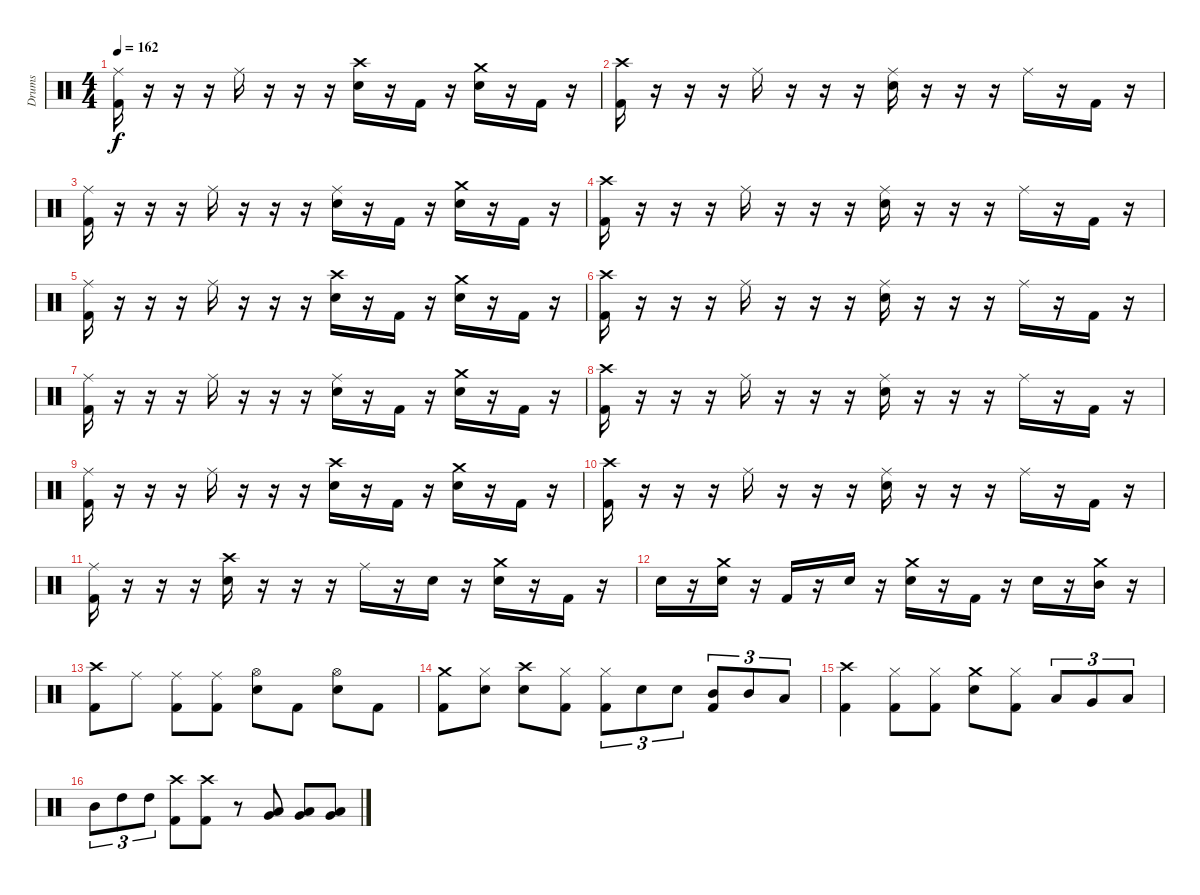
\track ("Drums" "Drums") {instrument percussion}
\staff {score}
\articulation defaults
\ts (4 4)
\tempo 162
\clef neutral
\ks c
("Ride (middle)" "Kick (hit) 2").16{dy f} r.16 r.16 r.16 "Ride (middle)".16 r.16 r.16 r.16 ("Crash high (hit)" "Snare (hit) 2").16 r.16 "Kick (hit) 2".16 r.16 ("Crash medium (hit)" "Snare (hit) 2").16 r.16 "Kick (hit) 2".16 r.16 |
("Crash high (hit)" "Kick (hit) 2").16 r.16 r.16 r.16 "Ride (middle)".16 r.16 r.16 r.16 ("Ride (middle)" "Snare (hit) 2").16 r.16 r.16 r.16 "Ride (middle)".16 r.16 "Kick (hit) 2".16 r.16 |
("Ride (middle)" "Kick (hit) 2").16 r.16 r.16 r.16 "Ride (middle)".16 r.16 r.16 r.16 ("Ride (middle)" "Snare (hit) 2").16 r.16 "Kick (hit) 2".16 r.16 ("Crash medium (hit)" "Snare (hit) 2").16 r.16 "Kick (hit) 2".16 r.16 |
("Crash high (hit)" "Kick (hit) 2").16 r.16 r.16 r.16 "Ride (middle)".16 r.16 r.16 r.16 ("Ride (middle)" "Snare (hit) 2").16 r.16 r.16 r.16 "Ride (middle)".16 r.16 "Kick (hit) 2".16 r.16 |
("Ride (middle)" "Kick (hit) 2").16 r.16 r.16 r.16 "Ride (middle)".16 r.16 r.16 r.16 ("Crash high (hit)" "Snare (hit) 2").16 r.16 "Kick (hit) 2".16 r.16 ("Crash medium (hit)" "Snare (hit) 2").16 r.16 "Kick (hit) 2".16 r.16 |
("Crash high (hit)" "Kick (hit) 2").16 r.16 r.16 r.16 "Ride (middle)".16 r.16 r.16 r.16 ("Ride (middle)" "Snare (hit) 2").16 r.16 r.16 r.16 "Ride (middle)".16 r.16 "Kick (hit) 2".16 r.16 |
("Ride (middle)" "Kick (hit) 2").16 r.16 r.16 r.16 "Ride (middle)".16 r.16 r.16 r.16 ("Ride (middle)" "Snare (hit) 2").16 r.16 "Kick (hit) 2".16 r.16 ("Crash medium (hit)" "Snare (hit) 2").16 r.16 "Kick (hit) 2".16 r.16 |
("Crash high (hit)" "Kick (hit) 2").16 r.16 r.16 r.16 "Ride (middle)".16 r.16 r.16 r.16 ("Ride (middle)" "Snare (hit) 2").16 r.16 r.16 r.16 "Ride (middle)".16 r.16 "Kick (hit) 2".16 r.16 |
("Ride (middle)" "Kick (hit) 2").16 r.16 r.16 r.16 "Ride (middle)".16 r.16 r.16 r.16 ("Crash high (hit)" "Snare (hit) 2").16 r.16 "Kick (hit) 2".16 r.16 ("Crash medium (hit)" "Snare (hit) 2").16 r.16 "Kick (hit) 2".16 r.16 |
("Crash high (hit)" "Kick (hit) 2").16 r.16 r.16 r.16 "Ride (middle)".16 r.16 r.16 r.16 ("Ride (middle)" "Snare (hit) 2").16 r.16 r.16 r.16 "Ride (middle)".16 r.16 "Kick (hit) 2".16 r.16 |
("Ride (middle)" "Kick (hit) 2").16 r.16 r.16 r.16 ("Crash high (hit)" "Snare (hit) 2").16 r.16 r.16 r.16 "Ride (middle)".16 r.16 "Snare (hit) 2".16 r.16 ("Crash medium (hit)" "Snare (hit) 2").16 r.16 "Kick (hit) 2".16 r.16 |
"Snare (hit) 2".16 r.16 ("Crash medium (hit)" "Snare (hit) 2").16 r.16 "Kick (hit) 2".16 r.16 "Snare (hit) 2".16 r.16 ("Crash medium (hit)" "Snare (hit) 2").16 r.16 "Kick (hit) 2".16 r.16 "Snare (hit) 2".16 r.16 ("Crash medium (hit)" "Mid Tom (hit)").16 r.16 |
("Crash high (hit)" "Kick (hit) 2").8 "Ride (middle)".8 ("Ride (middle)" "Kick (hit) 2").8 ("Ride (middle)" "Kick (hit) 2").8 ("Hi-Hat (open)" "Snare (hit) 2").8 "Kick (hit) 2".8 ("Hi-Hat (open)" "Snare (hit) 2").8 "Kick (hit) 2".8 |
("Crash medium (hit)" "Kick (hit) 2").8 ("Hi-Hat (closed)" "Snare (hit) 2").8 ("Crash high (hit)" "Snare (hit) 2").8 ("Hi-Hat (closed)" "Kick (hit) 2").8 ("Hi-Hat (closed)" "Kick (hit) 2").8{tu (3 2)} "Snare (hit) 2".8{tu (3 2)} "Snare (hit) 2".8{tu (3 2)} ("Mid Tom (hit)" "Kick (hit) 2").8{tu (3 2)} "Mid Tom (hit)".8{tu (3 2)} "Low Tom (hit)".8{tu (3 2)} |
("Crash high (hit)" "Kick (hit) 2").4 ("Hi-Hat (closed)" "Kick (hit) 2").8 ("Hi-Hat (closed)" "Kick (hit) 2").8 ("Crash medium (hit)" "Snare (hit) 2").8 ("Hi-Hat (closed)" "Kick (hit) 2").8 "Low Floor Tom (hit)".8{tu (3 2)} "Very Low Tom (hit)".8{tu (3 2)} "Low Tom (hit)".8{tu (3 2)} |
"Mid Tom (hit)".8{tu (3 2)} "High Tom (hit)".8{tu (3 2)} "High Tom (hit)".8{tu (3 2)} ("Crash high (hit)" "Kick (hit) 2").8 ("Crash high (hit)" "Kick (hit) 2").8 r.8 ("Very Low Tom (hit)" "Low Tom (hit)").8 ("Very Low Tom (hit)" "Low Tom (hit)").8 ("Very Low Tom (hit)" "Low Tom (hit)").8
